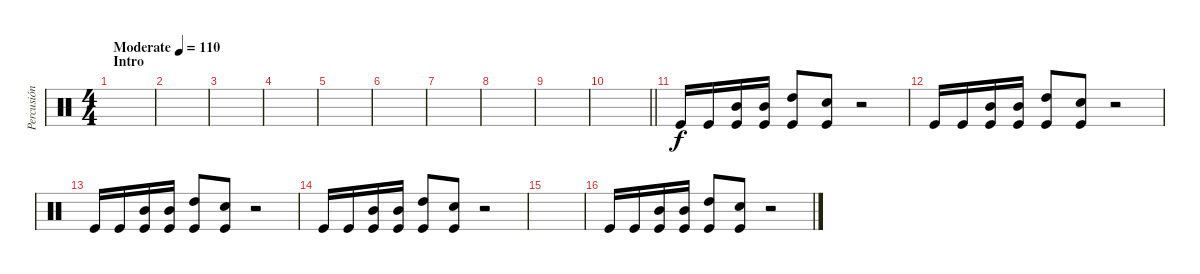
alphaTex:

\track ("Percusión" "Percusión") {instrument percussion}
\staff {score}
\articulation defaults
\ts (4 4)
\section ("" "Intro")
\tempo (110 "Moderate")
\clef neutral
\ks c
|
|
|
|
|
|
|
|
|
\barLineRight lightlight
|
\section ("" "")
"Kick (hit)".16 "Kick (hit)".16 ("Mid Tom (hit)" "Kick (hit)").16 ("Mid Tom (hit)" "Kick (hit)").16 ("High Tom (hit)" "Kick (hit)").8 ("Snare (hit) 2" "Kick (hit)").8 r.2 |
"Kick (hit)".16 "Kick (hit)".16 ("Mid Tom (hit)" "Kick (hit)").16 ("Mid Tom (hit)" "Kick (hit)").16 ("High Tom (hit)" "Kick (hit)").8 ("Snare (hit) 2" "Kick (hit)").8 r.2 |
"Kick (hit)".16 "Kick (hit)".16 ("Mid Tom (hit)" "Kick (hit)").16 ("Mid Tom (hit)" "Kick (hit)").16 ("High Tom (hit)" "Kick (hit)").8 ("Electric Snare (hit)" "Kick (hit)").8 r.2 |
"Kick (hit)".16 "Kick (hit)".16 ("Mid Tom (hit)" "Kick (hit)").16 ("Mid Tom (hit)" "Kick (hit)").16 ("High Tom (hit)" "Kick (hit)").8 ("Electric Snare (hit)" "Kick (hit)").8 r.2 |
|
"Kick (hit)".16 "Kick (hit)".16 ("Mid Tom (hit)" "Kick (hit)").16 ("Mid Tom (hit)" "Kick (hit)").16 ("High Tom (hit)" "Kick (hit)").8 ("Snare (hit) 2" "Kick (hit)").8 r.2
